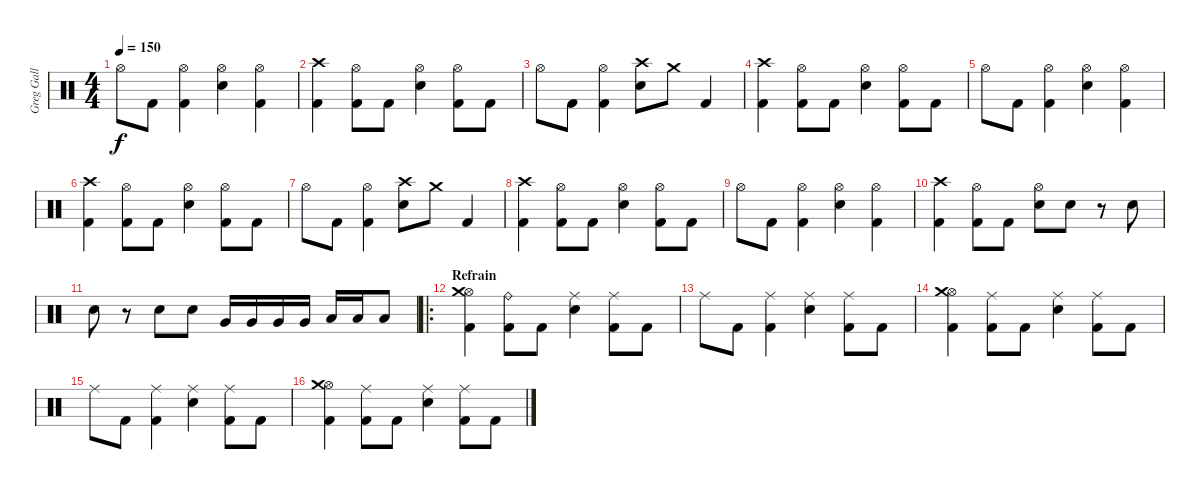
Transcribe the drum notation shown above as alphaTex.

\track ("Greg Gall" "Greg Gall") {instrument percussion}
\staff {score}
\articulation defaults
\ts (4 4)
\tempo 150
\clef neutral
\ks c "Hi-Hat (open)".8{dy f} "Kick (hit) 2".8
("Hi-Hat (open)" "Kick (hit) 2").4 ("Hi-Hat (open)" "Electric Snare (hit)").4 ("Hi-Hat (open)" "Kick (hit) 2").4 |
("Crash high (hit)" "Kick (hit) 2").4 ("Hi-Hat (open)" "Kick (hit) 2").8 "Kick (hit) 2".8 ("Hi-Hat (open)" "Electric Snare (hit)").4 ("Hi-Hat (open)" "Kick (hit) 2").8 "Kick (hit) 2".8 |
"Hi-Hat (open)".8 "Kick (hit) 2".8 ("Hi-Hat (open)" "Kick (hit) 2").4 ("Crash high (hit)" "Electric Snare (hit)").8 "Crash medium (hit)".8 "Kick (hit) 2".4 |
("Crash high (hit)" "Kick (hit) 2").4 ("Hi-Hat (open)" "Kick (hit) 2").8 "Kick (hit) 2".8 ("Hi-Hat (open)" "Electric Snare (hit)").4 ("Hi-Hat (open)" "Kick (hit) 2").8 "Kick (hit) 2".8 |
"Hi-Hat (open)".8 "Kick (hit) 2".8 ("Hi-Hat (open)" "Kick (hit) 2").4 ("Hi-Hat (open)" "Electric Snare (hit)").4 ("Hi-Hat (open)" "Kick (hit) 2").4 |
("Crash high (hit)" "Kick (hit) 2").4 ("Hi-Hat (open)" "Kick (hit) 2").8 "Kick (hit) 2".8 ("Hi-Hat (open)" "Electric Snare (hit)").4 ("Hi-Hat (open)" "Kick (hit) 2").8 "Kick (hit) 2".8 |
"Hi-Hat (open)".8 "Kick (hit) 2".8 ("Hi-Hat (open)" "Kick (hit) 2").4 ("Crash high (hit)" "Electric Snare (hit)").8 "Crash medium (hit)".8 "Kick (hit) 2".4 |
("Crash high (hit)" "Kick (hit) 2").4 ("Hi-Hat (open)" "Kick (hit) 2").8 "Kick (hit) 2".8 ("Hi-Hat (open)" "Electric Snare (hit)").4 ("Hi-Hat (open)" "Kick (hit) 2").8 "Kick (hit) 2".8 |
"Hi-Hat (open)".8 "Kick (hit) 2".8 ("Hi-Hat (open)" "Kick (hit) 2").4 ("Hi-Hat (open)" "Electric Snare (hit)").4 ("Hi-Hat (open)" "Kick (hit) 2").4 |
("Crash high (hit)" "Kick (hit) 2").4 ("Hi-Hat (open)" "Kick (hit) 2").8 "Kick (hit) 2".8 ("Hi-Hat (open)" "Electric Snare (hit)").8 "Electric Snare (hit)".8 r.8 "Electric Snare (hit)".8 |
"Electric Snare (hit)".8 r.8 "Electric Snare (hit)".8 "Electric Snare (hit)".8 "Very Low Tom (hit)".16 "Very Low Tom (hit)".16 "Very Low Tom (hit)".16 "Very Low Tom (hit)".16 "Low Floor Tom (hit)".16 "Low Floor Tom (hit)".16 "Low Floor Tom (hit)".8 |
\ro
\section ("" "Refrain")
("Hi-Hat (open)" "Crash medium (hit)" "Kick (hit) 2").4 ("Ride (bell)" "Kick (hit) 2").8 "Kick (hit) 2".8 ("Ride (middle)" "Electric Snare (hit)").4 ("Ride (middle)" "Kick (hit) 2").8 "Kick (hit) 2".8 |
"Ride (middle)".8 "Kick (hit) 2".8 ("Ride (middle)" "Kick (hit) 2").4 ("Ride (middle)" "Electric Snare (hit)").4 ("Ride (middle)" "Kick (hit) 2").8 "Kick (hit) 2".8 |
("Hi-Hat (open)" "Crash medium (hit)" "Kick (hit) 2").4 ("Ride (middle)" "Kick (hit) 2").8 "Kick (hit) 2".8 ("Ride (middle)" "Electric Snare (hit)").4 ("Ride (middle)" "Kick (hit) 2").8 "Kick (hit) 2".8 |
"Ride (middle)".8 "Kick (hit) 2".8 ("Ride (middle)" "Kick (hit) 2").4 ("Ride (middle)" "Electric Snare (hit)").4 ("Ride (middle)" "Kick (hit) 2").8 "Kick (hit) 2".8 |
("Hi-Hat (open)" "Crash medium (hit)" "Kick (hit) 2").4 ("Ride (middle)" "Kick (hit) 2").8 "Kick (hit) 2".8 ("Ride (middle)" "Electric Snare (hit)").4 ("Ride (middle)" "Kick (hit) 2").8 "Kick (hit) 2".8
